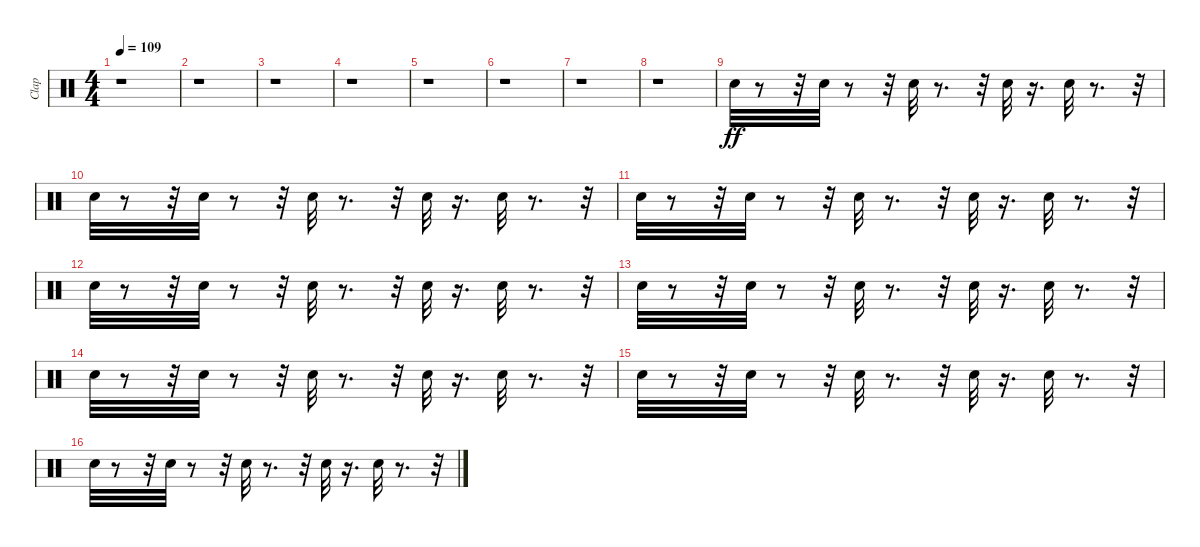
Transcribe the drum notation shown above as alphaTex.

\track ("Clap" "Clap") {instrument percussion}
\staff {score}
\articulation defaults
\ts (4 4)
\tempo 109
\clef neutral
\ks c
r.1{dy ff} |
r.1 |
r.1 |
r.1 |
r.1 |
r.1 |
r.1 |
r.1 |
"Hand Clap (hit)".32 r.8 r.32 "Hand Clap (hit)".32 r.8 r.32 "Hand Clap (hit)".32 r.8{d} r.32 "Hand Clap (hit)".32 r.16{d} "Hand Clap (hit)".32 r.8{d} r.32 |
"Hand Clap (hit)".32 r.8 r.32 "Hand Clap (hit)".32 r.8 r.32 "Hand Clap (hit)".32 r.8{d} r.32 "Hand Clap (hit)".32 r.16{d} "Hand Clap (hit)".32 r.8{d} r.32 |
"Hand Clap (hit)".32 r.8 r.32 "Hand Clap (hit)".32 r.8 r.32 "Hand Clap (hit)".32 r.8{d} r.32 "Hand Clap (hit)".32 r.16{d} "Hand Clap (hit)".32 r.8{d} r.32 |
"Hand Clap (hit)".32 r.8 r.32 "Hand Clap (hit)".32 r.8 r.32 "Hand Clap (hit)".32 r.8{d} r.32 "Hand Clap (hit)".32 r.16{d} "Hand Clap (hit)".32 r.8{d} r.32 |
"Hand Clap (hit)".32 r.8 r.32 "Hand Clap (hit)".32 r.8 r.32 "Hand Clap (hit)".32 r.8{d} r.32 "Hand Clap (hit)".32 r.16{d} "Hand Clap (hit)".32 r.8{d} r.32 |
"Hand Clap (hit)".32 r.8 r.32 "Hand Clap (hit)".32 r.8 r.32 "Hand Clap (hit)".32 r.8{d} r.32 "Hand Clap (hit)".32 r.16{d} "Hand Clap (hit)".32 r.8{d} r.32 |
"Hand Clap (hit)".32 r.8 r.32 "Hand Clap (hit)".32 r.8 r.32 "Hand Clap (hit)".32 r.8{d} r.32 "Hand Clap (hit)".32 r.16{d} "Hand Clap (hit)".32 r.8{d} r.32 |
"Hand Clap (hit)".32 r.8 r.32 "Hand Clap (hit)".32 r.8 r.32 "Hand Clap (hit)".32 r.8{d} r.32 "Hand Clap (hit)".32 r.16{d} "Hand Clap (hit)".32 r.8{d} r.32
